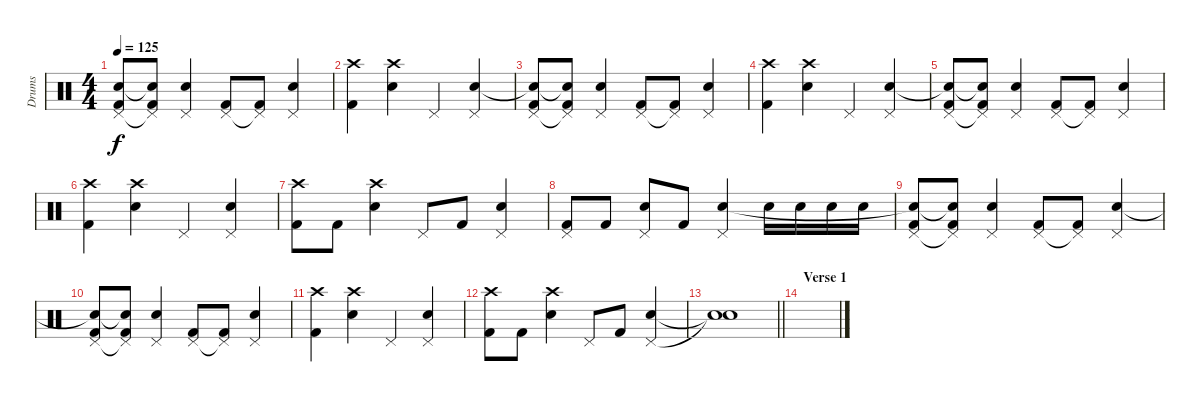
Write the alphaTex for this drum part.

\track ("Drums" "Drums") {instrument percussion}
\staff {score}
\articulation defaults
\ts (4 4)
\tempo 125
\clef neutral
\ks c
("Pedal Hi-Hat (hit)" "Snare (hit)"{t} "Kick (hit) 2").8{dy f} ("Pedal Hi-Hat (hit)"{t} "Snare (hit)"{t} "Kick (hit) 2").8 ("Pedal Hi-Hat (hit)" "Electric Snare (hit)").4 ("Pedal Hi-Hat (hit)" "Kick (hit) 2").8 ("Pedal Hi-Hat (hit)"{t} "Kick (hit) 2").8 ("Pedal Hi-Hat (hit)" "Electric Snare (hit)").4 |
("Crash high (hit)" "Kick (hit) 2").4 ("Crash high (hit)" "Electric Snare (hit)").4 "Pedal Hi-Hat (hit)".4 ("Pedal Hi-Hat (hit)" "Electric Snare (hit)").4 |
("Pedal Hi-Hat (hit)" "Snare (hit)"{t} "Kick (hit) 2").8 ("Pedal Hi-Hat (hit)"{t} "Snare (hit)"{t} "Kick (hit) 2").8 ("Pedal Hi-Hat (hit)" "Electric Snare (hit)").4 ("Pedal Hi-Hat (hit)" "Kick (hit) 2").8 ("Pedal Hi-Hat (hit)"{t} "Kick (hit) 2").8 ("Pedal Hi-Hat (hit)" "Electric Snare (hit)").4 |
("Crash high (hit)" "Kick (hit) 2").4 ("Crash high (hit)" "Electric Snare (hit)").4 "Pedal Hi-Hat (hit)".4 ("Pedal Hi-Hat (hit)" "Electric Snare (hit)").4 |
("Pedal Hi-Hat (hit)" "Snare (hit)"{t} "Kick (hit) 2").8 ("Pedal Hi-Hat (hit)"{t} "Snare (hit)"{t} "Kick (hit) 2").8 ("Pedal Hi-Hat (hit)" "Electric Snare (hit)").4 ("Pedal Hi-Hat (hit)" "Kick (hit) 2").8 ("Pedal Hi-Hat (hit)"{t} "Kick (hit) 2").8 ("Pedal Hi-Hat (hit)" "Electric Snare (hit)").4 |
("Crash high (hit)" "Kick (hit) 2").4 ("Crash high (hit)" "Electric Snare (hit)").4 "Pedal Hi-Hat (hit)".4 ("Pedal Hi-Hat (hit)" "Electric Snare (hit)").4 |
("Crash high (hit)" "Kick (hit) 2").8 "Kick (hit) 2".8 ("Crash high (hit)" "Electric Snare (hit)").4 "Pedal Hi-Hat (hit)".8 "Kick (hit) 2".8 ("Pedal Hi-Hat (hit)" "Electric Snare (hit)").4 |
("Pedal Hi-Hat (hit)" "Kick (hit) 2").8 "Kick (hit) 2".8 ("Pedal Hi-Hat (hit)" "Electric Snare (hit)").8 "Kick (hit) 2".8 ("Pedal Hi-Hat (hit)" "Electric Snare (hit)").4 "Electric Snare (hit)".16 "Electric Snare (hit)".16 "Electric Snare (hit)".16 "Electric Snare (hit)".16 |
("Pedal Hi-Hat (hit)" "Snare (hit)"{t} "Kick (hit) 2").8 ("Pedal Hi-Hat (hit)"{t} "Snare (hit)"{t} "Kick (hit) 2").8 ("Pedal Hi-Hat (hit)" "Electric Snare (hit)").4 ("Pedal Hi-Hat (hit)" "Kick (hit) 2").8 ("Pedal Hi-Hat (hit)"{t} "Kick (hit) 2").8 ("Pedal Hi-Hat (hit)" "Electric Snare (hit)").4 |
("Pedal Hi-Hat (hit)" "Snare (hit)"{t} "Kick (hit) 2").8 ("Pedal Hi-Hat (hit)"{t} "Snare (hit)"{t} "Kick (hit) 2").8 ("Pedal Hi-Hat (hit)" "Electric Snare (hit)").4 ("Pedal Hi-Hat (hit)" "Kick (hit) 2").8 ("Pedal Hi-Hat (hit)"{t} "Kick (hit) 2").8 ("Pedal Hi-Hat (hit)" "Electric Snare (hit)").4 |
("Crash high (hit)" "Kick (hit) 2").4 ("Crash high (hit)" "Electric Snare (hit)").4 "Pedal Hi-Hat (hit)".4 ("Pedal Hi-Hat (hit)" "Electric Snare (hit)").4 |
("Crash high (hit)" "Kick (hit) 2").8 "Kick (hit) 2".8 ("Crash high (hit)" "Electric Snare (hit)").4 "Pedal Hi-Hat (hit)".8 "Kick (hit) 2".8 ("Pedal Hi-Hat (hit)" "Electric Snare (hit)").4 |
\barLineRight lightlight
("Snare (hit)"{t} "Snare (hit)"{t}).1 |
\section ("" "Verse 1")
